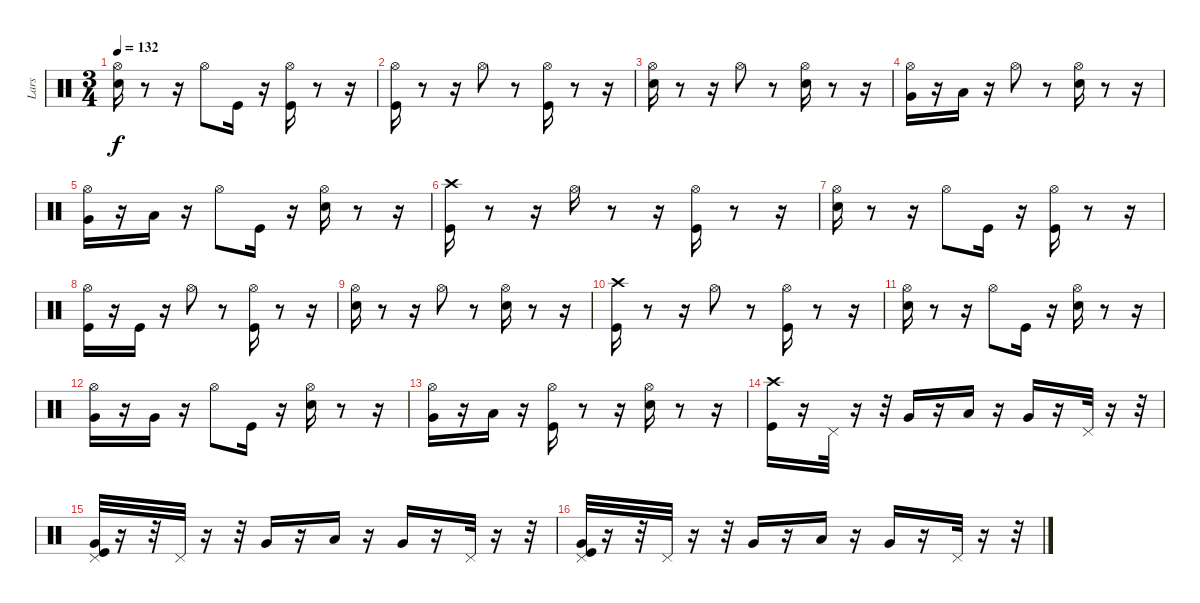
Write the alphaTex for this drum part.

\track ("Lars" "Lars") {instrument percussion}
\staff {score}
\articulation defaults
\ts (3 4)
\tempo 132
\clef neutral
\ks c
("Hi-Hat (open)" "Snare (hit) 2").16{dy f} r.8 r.16 "Hi-Hat (open)".8 "Kick (hit)".16 r.16 ("Hi-Hat (open)" "Kick (hit)").16 r.8 r.16 |
("Hi-Hat (open)" "Kick (hit)").16 r.8 r.16 "Hi-Hat (open)".8 r.8 ("Kick (hit)" "Hi-Hat (open)").16 r.8 r.16 |
("Hi-Hat (open)" "Snare (hit) 2").16 r.8 r.16 "Hi-Hat (open)".8 r.8 ("Snare (hit) 2" "Hi-Hat (open)").16 r.8 r.16 |
("Hi-Hat (open)" "Very Low Tom (hit)").16 r.16 "Low Floor Tom (hit)".16 r.16 "Hi-Hat (open)".8 r.8 ("Hi-Hat (open)" "Snare (hit) 2").16 r.8 r.16 |
("Hi-Hat (open)" "Very Low Tom (hit)").16 r.16 "Low Floor Tom (hit)".16 r.16 "Hi-Hat (open)".8 "Kick (hit)".16 r.16 ("Hi-Hat (open)" "Snare (hit) 2").16 r.8 r.16 |
("Kick (hit)" "Crash high (hit)").16 r.8 r.16 "Hi-Hat (open)".16 r.8 r.16 ("Hi-Hat (open)" "Kick (hit)").16 r.8 r.16 |
("Snare (hit) 2" "Hi-Hat (open)").16 r.8 r.16 "Hi-Hat (open)".8 "Kick (hit)".16 r.16 ("Hi-Hat (open)" "Kick (hit)").16 r.8 r.16 |
("Kick (hit)" "Hi-Hat (open)").16 r.16 "Kick (hit)".16 r.16 "Hi-Hat (open)".8 r.8 ("Hi-Hat (open)" "Kick (hit)").16 r.8 r.16 |
("Hi-Hat (open)" "Snare (hit) 2").16 r.8 r.16 "Hi-Hat (open)".8 r.8 ("Hi-Hat (open)" "Snare (hit) 2").16 r.8 r.16 |
("Kick (hit)" "Crash high (hit)").16 r.8 r.16 "Hi-Hat (open)".8 r.8 ("Kick (hit)" "Hi-Hat (open)").16 r.8 r.16 |
("Hi-Hat (open)" "Snare (hit) 2").16 r.8 r.16 "Hi-Hat (open)".8 "Kick (hit)".16 r.16 ("Hi-Hat (open)" "Snare (hit) 2").16 r.8 r.16 |
("Hi-Hat (open)" "Very Low Tom (hit)").16 r.16 "Very Low Tom (hit)".16 r.16 "Hi-Hat (open)".8 "Kick (hit)".16 r.16 ("Hi-Hat (open)" "Snare (hit) 2").16 r.8 r.16 |
("Hi-Hat (open)" "Very Low Tom (hit)").16 r.16 "Low Floor Tom (hit)".16 r.16 ("Hi-Hat (open)" "Kick (hit)").16 r.8 r.16 ("Hi-Hat (open)" "Snare (hit) 2").16 r.8 r.16 |
("Crash high (hit)" "Kick (hit)").16 r.16 "Pedal Hi-Hat (hit)".32 r.16 r.32 "Very Low Tom (hit)".16 r.16 "Low Tom (hit)".16 r.16 "Very Low Tom (hit)".16 r.16 "Pedal Hi-Hat (hit)".32 r.16 r.32 |
("Kick (hit)" "Pedal Hi-Hat (hit)" "Very Low Tom (hit)").32 r.16 r.32 "Pedal Hi-Hat (hit)".32 r.16 r.32 "Very Low Tom (hit)".16 r.16 "Low Tom (hit)".16 r.16 "Very Low Tom (hit)".16 r.16 "Pedal Hi-Hat (hit)".32 r.16 r.32 |
("Kick (hit)" "Pedal Hi-Hat (hit)" "Very Low Tom (hit)").32 r.16 r.32 "Pedal Hi-Hat (hit)".32 r.16 r.32 "Very Low Tom (hit)".16 r.16 "Low Tom (hit)".16 r.16 "Very Low Tom (hit)".16 r.16 "Pedal Hi-Hat (hit)".32 r.16 r.32
